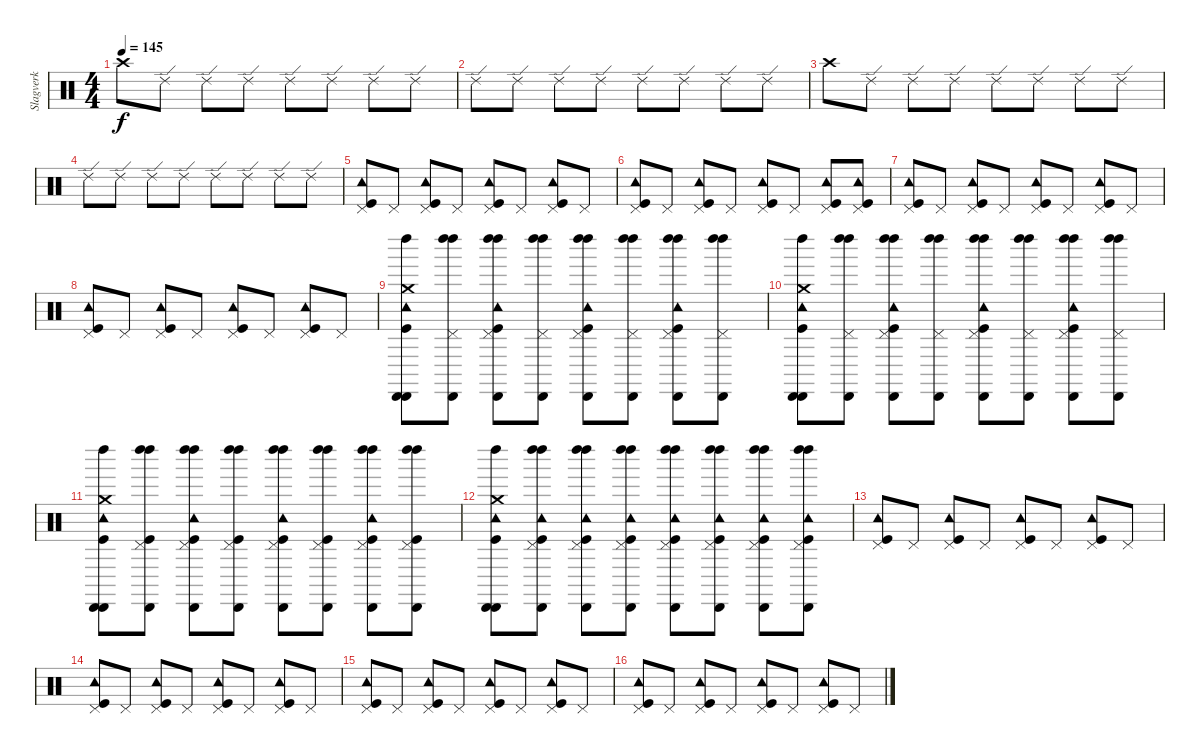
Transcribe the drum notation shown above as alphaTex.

\track ("Slagverk" "Slagverk") {instrument percussion}
\staff {score}
\articulation defaults
\ts (4 4)
\tempo 145
\clef neutral
\ks c "Crash high (hit)".8{dy f} "Ride (edge) 2".8 "Ride (edge) 2".8 "Ride (edge) 2".8 "Ride (edge) 2".8 "Ride (edge) 2".8 "Ride (edge) 2".8 "Ride (edge) 2".8
|
"Ride (edge) 2".8 "Ride (edge) 2".8 "Ride (edge) 2".8 "Ride (edge) 2".8 "Ride (edge) 2".8 "Ride (edge) 2".8 "Ride (edge) 2".8 "Ride (edge) 2".8 |
"Crash high (hit)".8 "Ride (edge) 2".8 "Ride (edge) 2".8 "Ride (edge) 2".8 "Ride (edge) 2".8 "Ride (edge) 2".8 "Ride (edge) 2".8 "Ride (edge) 2".8 |
"Ride (edge) 2".8 "Ride (edge) 2".8 "Ride (edge) 2".8 "Ride (edge) 2".8 "Ride (edge) 2".8 "Ride (edge) 2".8 "Ride (edge) 2".8 "Ride (edge) 2".8 |
("Pedal Hi-Hat (hit)" "Tambourine (hit)" "Kick (hit)").8 "Pedal Hi-Hat (hit)".8 ("Pedal Hi-Hat (hit)" "Tambourine (hit)" "Kick (hit)").8 "Pedal Hi-Hat (hit)".8 ("Pedal Hi-Hat (hit)" "Tambourine (hit)" "Kick (hit)").8 "Pedal Hi-Hat (hit)".8 ("Pedal Hi-Hat (hit)" "Tambourine (hit)" "Kick (hit)").8 "Pedal Hi-Hat (hit)".8 |
("Pedal Hi-Hat (hit)" "Tambourine (hit)" "Kick (hit)").8 "Pedal Hi-Hat (hit)".8 ("Pedal Hi-Hat (hit)" "Tambourine (hit)" "Kick (hit)").8 "Pedal Hi-Hat (hit)".8 ("Pedal Hi-Hat (hit)" "Tambourine (hit)" "Kick (hit)").8 "Pedal Hi-Hat (hit)".8 ("Pedal Hi-Hat (hit)" "Tambourine (hit)" "Kick (hit)").8 ("Pedal Hi-Hat (hit)" "Tambourine (hit)" "Kick (hit)").8 |
("Pedal Hi-Hat (hit)" "Tambourine (hit)" "Kick (hit)").8 "Pedal Hi-Hat (hit)".8 ("Pedal Hi-Hat (hit)" "Tambourine (hit)" "Kick (hit)").8 "Pedal Hi-Hat (hit)".8 ("Pedal Hi-Hat (hit)" "Tambourine (hit)" "Kick (hit)").8 "Pedal Hi-Hat (hit)".8 ("Pedal Hi-Hat (hit)" "Tambourine (hit)" "Kick (hit)").8 "Pedal Hi-Hat (hit)".8 |
("Pedal Hi-Hat (hit)" "Tambourine (hit)" "Kick (hit)").8 "Pedal Hi-Hat (hit)".8 ("Pedal Hi-Hat (hit)" "Tambourine (hit)" "Kick (hit)").8 "Pedal Hi-Hat (hit)".8 ("Pedal Hi-Hat (hit)" "Tambourine (hit)" "Kick (hit)").8 "Pedal Hi-Hat (hit)".8 ("Pedal Hi-Hat (hit)" "Tambourine (hit)" "Kick (hit)").8 "Pedal Hi-Hat (hit)".8 |
("Crash medium (hit)" "Cabasa (hit)" "Tambourine (hit)" "Left Maraca (hit)" "Cabasa (hit)" "Kick (hit)").8 ("Pedal Hi-Hat (hit)" "Cabasa (hit)" "Left Maraca (hit)" "Left Maraca (hit)").8 ("Pedal Hi-Hat (hit)" "Cabasa (hit)" "Tambourine (hit)" "Left Maraca (hit)" "Left Maraca (hit)" "Kick (hit)").8 ("Pedal Hi-Hat (hit)" "Cabasa (hit)" "Left Maraca (hit)" "Left Maraca (hit)").8 ("Pedal Hi-Hat (hit)" "Cabasa (hit)" "Tambourine (hit)" "Left Maraca (hit)" "Left Maraca (hit)" "Kick (hit)").8 ("Pedal Hi-Hat (hit)" "Cabasa (hit)" "Left Maraca (hit)" "Left Maraca (hit)").8 ("Pedal Hi-Hat (hit)" "Cabasa (hit)" "Tambourine (hit)" "Left Maraca (hit)" "Left Maraca (hit)" "Kick (hit)").8 ("Pedal Hi-Hat (hit)" "Cabasa (hit)" "Left Maraca (hit)" "Left Maraca (hit)").8 |
("Crash medium (hit)" "Cabasa (hit)" "Tambourine (hit)" "Left Maraca (hit)" "Cabasa (hit)" "Kick (hit)").8 ("Pedal Hi-Hat (hit)" "Cabasa (hit)" "Left Maraca (hit)" "Left Maraca (hit)").8 ("Pedal Hi-Hat (hit)" "Cabasa (hit)" "Tambourine (hit)" "Left Maraca (hit)" "Left Maraca (hit)" "Kick (hit)").8 ("Pedal Hi-Hat (hit)" "Cabasa (hit)" "Left Maraca (hit)" "Left Maraca (hit)").8 ("Pedal Hi-Hat (hit)" "Cabasa (hit)" "Tambourine (hit)" "Left Maraca (hit)" "Left Maraca (hit)" "Kick (hit)").8 ("Pedal Hi-Hat (hit)" "Cabasa (hit)" "Left Maraca (hit)" "Left Maraca (hit)").8 ("Pedal Hi-Hat (hit)" "Cabasa (hit)" "Tambourine (hit)" "Left Maraca (hit)" "Left Maraca (hit)" "Kick (hit)").8 ("Pedal Hi-Hat (hit)" "Cabasa (hit)" "Left Maraca (hit)" "Left Maraca (hit)").8 |
("Crash medium (hit)" "Cabasa (hit)" "Tambourine (hit)" "Left Maraca (hit)" "Cabasa (hit)" "Kick (hit)").8 ("Pedal Hi-Hat (hit)" "Cabasa (hit)" "Left Maraca (hit)" "Left Maraca (hit)" "Kick (hit)").8 ("Pedal Hi-Hat (hit)" "Cabasa (hit)" "Tambourine (hit)" "Left Maraca (hit)" "Left Maraca (hit)" "Kick (hit)").8 ("Pedal Hi-Hat (hit)" "Cabasa (hit)" "Left Maraca (hit)" "Left Maraca (hit)" "Kick (hit)").8 ("Pedal Hi-Hat (hit)" "Cabasa (hit)" "Tambourine (hit)" "Left Maraca (hit)" "Left Maraca (hit)" "Kick (hit)").8 ("Pedal Hi-Hat (hit)" "Cabasa (hit)" "Left Maraca (hit)" "Left Maraca (hit)" "Kick (hit)").8 ("Pedal Hi-Hat (hit)" "Cabasa (hit)" "Tambourine (hit)" "Left Maraca (hit)" "Left Maraca (hit)" "Kick (hit)").8 ("Pedal Hi-Hat (hit)" "Cabasa (hit)" "Left Maraca (hit)" "Left Maraca (hit)" "Kick (hit)").8 |
("Crash medium (hit)" "Cabasa (hit)" "Tambourine (hit)" "Left Maraca (hit)" "Cabasa (hit)" "Kick (hit)").8 ("Pedal Hi-Hat (hit)" "Cabasa (hit)" "Tambourine (hit)" "Left Maraca (hit)" "Left Maraca (hit)" "Kick (hit)").8 ("Pedal Hi-Hat (hit)" "Cabasa (hit)" "Tambourine (hit)" "Left Maraca (hit)" "Left Maraca (hit)" "Kick (hit)").8 ("Pedal Hi-Hat (hit)" "Cabasa (hit)" "Tambourine (hit)" "Left Maraca (hit)" "Left Maraca (hit)" "Kick (hit)").8 ("Pedal Hi-Hat (hit)" "Cabasa (hit)" "Tambourine (hit)" "Left Maraca (hit)" "Left Maraca (hit)" "Kick (hit)").8 ("Pedal Hi-Hat (hit)" "Cabasa (hit)" "Tambourine (hit)" "Left Maraca (hit)" "Left Maraca (hit)" "Kick (hit)").8 ("Pedal Hi-Hat (hit)" "Cabasa (hit)" "Tambourine (hit)" "Left Maraca (hit)" "Left Maraca (hit)" "Kick (hit)").8 ("Pedal Hi-Hat (hit)" "Cabasa (hit)" "Tambourine (hit)" "Left Maraca (hit)" "Left Maraca (hit)" "Kick (hit)").8 |
("Pedal Hi-Hat (hit)" "Tambourine (hit)" "Kick (hit)").8 "Pedal Hi-Hat (hit)".8 ("Pedal Hi-Hat (hit)" "Tambourine (hit)" "Kick (hit)").8 "Pedal Hi-Hat (hit)".8 ("Pedal Hi-Hat (hit)" "Tambourine (hit)" "Kick (hit)").8 "Pedal Hi-Hat (hit)".8 ("Pedal Hi-Hat (hit)" "Tambourine (hit)" "Kick (hit)").8 "Pedal Hi-Hat (hit)".8 |
("Pedal Hi-Hat (hit)" "Tambourine (hit)" "Kick (hit)").8 "Pedal Hi-Hat (hit)".8 ("Pedal Hi-Hat (hit)" "Tambourine (hit)" "Kick (hit)").8 "Pedal Hi-Hat (hit)".8 ("Pedal Hi-Hat (hit)" "Tambourine (hit)" "Kick (hit)").8 "Pedal Hi-Hat (hit)".8 ("Pedal Hi-Hat (hit)" "Tambourine (hit)" "Kick (hit)").8 "Pedal Hi-Hat (hit)".8 |
("Pedal Hi-Hat (hit)" "Tambourine (hit)" "Kick (hit)").8 "Pedal Hi-Hat (hit)".8 ("Pedal Hi-Hat (hit)" "Tambourine (hit)" "Kick (hit)").8 "Pedal Hi-Hat (hit)".8 ("Pedal Hi-Hat (hit)" "Tambourine (hit)" "Kick (hit)").8 "Pedal Hi-Hat (hit)".8 ("Pedal Hi-Hat (hit)" "Tambourine (hit)" "Kick (hit)").8 "Pedal Hi-Hat (hit)".8 |
("Pedal Hi-Hat (hit)" "Tambourine (hit)" "Kick (hit)").8 "Pedal Hi-Hat (hit)".8 ("Pedal Hi-Hat (hit)" "Tambourine (hit)" "Kick (hit)").8 "Pedal Hi-Hat (hit)".8 ("Pedal Hi-Hat (hit)" "Tambourine (hit)" "Kick (hit)").8 "Pedal Hi-Hat (hit)".8 ("Pedal Hi-Hat (hit)" "Tambourine (hit)" "Kick (hit)").8 "Pedal Hi-Hat (hit)".8
